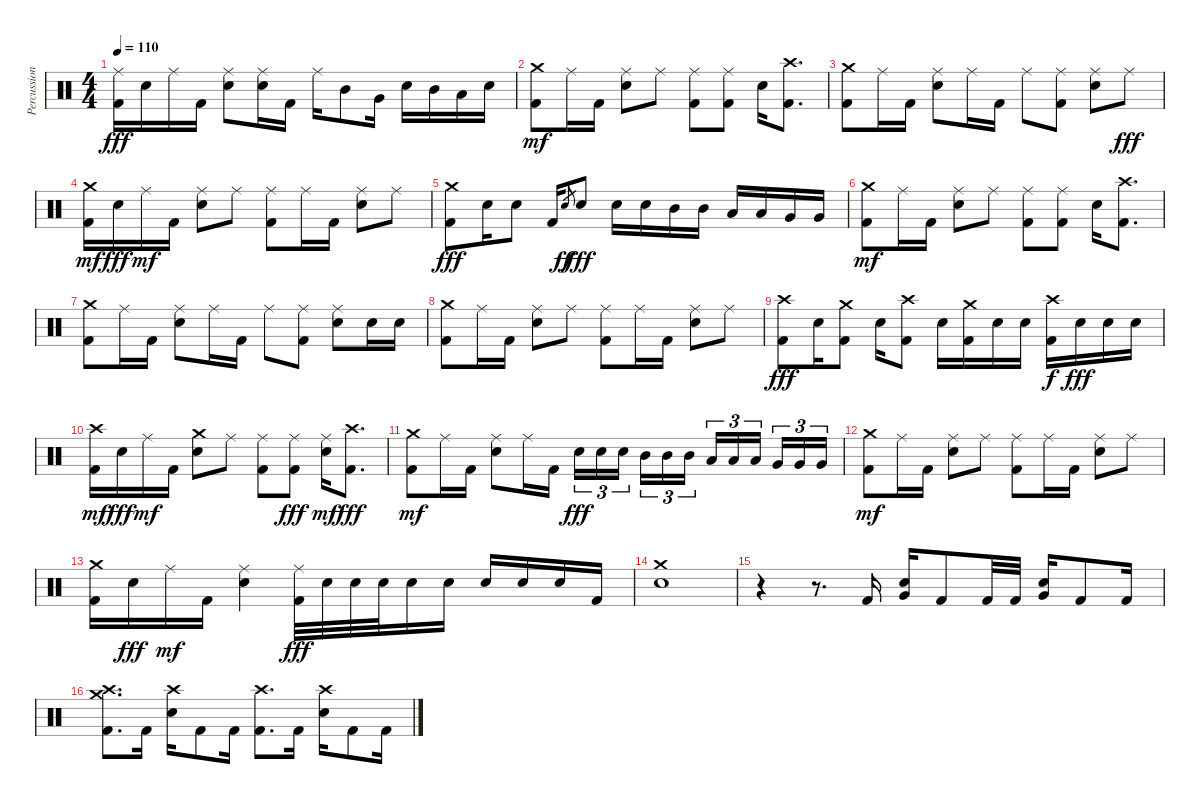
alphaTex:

\track ("Percussion" "Percussion") {instrument percussion}
\staff {score}
\articulation defaults
\ts (4 4)
\tempo 110
\clef neutral
\ks c
("Ride (middle)" "Kick (hit) 2").16{dy fff} "Electric Snare (hit)".16 "Ride (middle)".16 "Kick (hit) 2".16 ("Ride (middle)" "Electric Snare (hit)").8 ("Ride (middle)" "Electric Snare (hit)").16 "Kick (hit) 2".16 "Ride (middle)".16 "Mid Tom (hit)".8 "Very Low Tom (hit)".16 "Electric Snare (hit)".16 "Mid Tom (hit)".16 "Low Tom (hit)".16 "Electric Snare (hit)".16 |
("Crash medium (hit)" "Kick (hit) 2").8{dy mf} "Ride (middle)".16 "Kick (hit) 2".16 ("Ride (middle)" "Electric Snare (hit)").8 "Ride (middle)".8 ("Ride (middle)" "Kick (hit) 2").8 ("Ride (middle)" "Kick (hit) 2").8 "Electric Snare (hit)".16 ("Crash high (hit)" "Kick (hit) 2").8{d} |
("Crash medium (hit)" "Kick (hit) 2").8 "Ride (middle)".16 "Kick (hit) 2".16 ("Ride (middle)" "Electric Snare (hit)").8 "Ride (middle)".16 "Kick (hit) 2".16 "Ride (middle)".8 ("Ride (middle)" "Kick (hit) 2").8 ("Ride (middle)" "Electric Snare (hit)").8 "Ride (middle)".8{dy fff} |
("Crash medium (hit)" "Kick (hit) 2").16{dy mf} "Electric Snare (hit)".16{dy fff} "Ride (middle)".16{dy mf} "Kick (hit) 2".16 ("Ride (middle)" "Electric Snare (hit)").8 "Ride (middle)".8 ("Ride (middle)" "Kick (hit) 2").8 "Ride (middle)".16 "Kick (hit) 2".16 ("Ride (middle)" "Electric Snare (hit)").8 "Ride (middle)".8 |
("Crash medium (hit)" "Kick (hit) 2").8{dy fff} "Electric Snare (hit)".16 "Electric Snare (hit)".8 "Kick (hit) 2".16 "Electric Snare (hit)"{h}.8{gr dy ff} "Electric Snare (hit)".8{dy fff} "Electric Snare (hit)".16 "Electric Snare (hit)".16 "Mid Tom (hit)".16 "Mid Tom (hit)".16 "Low Tom (hit)".16 "Low Tom (hit)".16 "Very Low Tom (hit)".16 "Very Low Tom (hit)".16 |
("Crash medium (hit)" "Kick (hit) 2").8{dy mf} "Ride (middle)".16 "Kick (hit) 2".16 ("Ride (middle)" "Electric Snare (hit)").8 "Ride (middle)".8 ("Ride (middle)" "Kick (hit) 2").8 ("Ride (middle)" "Kick (hit) 2").8 "Electric Snare (hit)".16 ("Crash high (hit)" "Kick (hit) 2").8{d} |
("Crash medium (hit)" "Kick (hit) 2").8 "Ride (middle)".16 "Kick (hit) 2".16 ("Ride (middle)" "Electric Snare (hit)").8 "Ride (middle)".16 "Kick (hit) 2".16 "Ride (middle)".8 ("Ride (middle)" "Kick (hit) 2").8 ("Ride (middle)" "Electric Snare (hit)").8 "Electric Snare (hit)".16 "Electric Snare (hit)".16 |
("Crash medium (hit)" "Kick (hit) 2").8 "Ride (middle)".16 "Kick (hit) 2".16 ("Ride (middle)" "Electric Snare (hit)").8 "Ride (middle)".8 ("Ride (middle)" "Kick (hit) 2").8 "Ride (middle)".16 "Kick (hit) 2".16 ("Ride (middle)" "Electric Snare (hit)").8 "Ride (middle)".8 |
("Crash high (hit)" "Kick (hit) 2").8{dy fff} "Electric Snare (hit)".16 ("Crash medium (hit)" "Kick (hit) 2").8 "Electric Snare (hit)".16 ("Crash high (hit)" "Kick (hit) 2").8 "Electric Snare (hit)".16 ("Crash medium (hit)" "Kick (hit) 2").16 "Electric Snare (hit)".16 "Electric Snare (hit)".16 ("Crash high (hit)" "Kick (hit) 2").16{dy f} "Electric Snare (hit)".16{dy fff} "Electric Snare (hit)".16 "Electric Snare (hit)".16 |
("Crash high (hit)" "Kick (hit) 2").16{dy mf} "Electric Snare (hit)".16{dy fff} "Ride (middle)".16{dy mf} "Kick (hit) 2".16 ("Crash medium (hit)" "Electric Snare (hit)").8 "Ride (middle)".8 ("Ride (middle)" "Kick (hit) 2").8 ("Ride (middle)" "Kick (hit) 2").8{dy fff} ("Ride (middle)" "Electric Snare (hit)").16{dy mf} ("Crash high (hit)" "Kick (hit) 2").8{d dy fff} |
("Crash medium (hit)" "Kick (hit) 2").8{dy mf} "Ride (middle)".16 "Kick (hit) 2".16 ("Ride (middle)" "Electric Snare (hit)").8 "Ride (middle)".16 "Kick (hit) 2".16 "Electric Snare (hit)".16{tu (3 2) dy fff} "Electric Snare (hit)".16{tu (3 2)} "Electric Snare (hit)".16{tu (3 2) beam splitsecondary} "Mid Tom (hit)".16{tu (3 2)} "Mid Tom (hit)".16{tu (3 2)} "Mid Tom (hit)".16{tu (3 2)} "Low Tom (hit)".16{tu (3 2)} "Low Tom (hit)".16{tu (3 2)} "Low Tom (hit)".16{tu (3 2) beam splitsecondary} "Very Low Tom (hit)".16{tu (3 2)} "Very Low Tom (hit)".16{tu (3 2)} "Very Low Tom (hit)".16{tu (3 2)} |
("Crash medium (hit)" "Kick (hit) 2").8{dy mf} "Ride (middle)".16 "Kick (hit) 2".16 ("Ride (middle)" "Electric Snare (hit)").8 "Ride (middle)".8 ("Ride (middle)" "Kick (hit) 2").8 "Ride (middle)".16 "Kick (hit) 2".16 ("Ride (middle)" "Electric Snare (hit)").8 "Ride (middle)".8 |
("Crash medium (hit)" "Kick (hit) 2").16 "Electric Snare (hit)".16{dy fff} "Ride (middle)".16{dy mf} "Kick (hit) 2".16 ("Ride (middle)" "Electric Snare (hit)").4 ("Ride (middle)" "Kick (hit) 2").32{dy fff} "Electric Snare (hit)".32 "Electric Snare (hit)".32 "Electric Snare (hit)".32 "Electric Snare (hit)".16 "Electric Snare (hit)".16 "Electric Snare (hit)".16 "Electric Snare (hit)".16 "Electric Snare (hit)".16 "Kick (hit) 2".16 |
("Crash medium (hit)" "Electric Snare (hit)").1 |
r.4 r.8{d} "Kick (hit) 2".16 ("Electric Snare (hit)" "Very Low Tom (hit)").16 "Kick (hit) 2".8 "Kick (hit) 2".32 "Kick (hit) 2".32 ("Electric Snare (hit)" "Very Low Tom (hit)").16 "Kick (hit) 2".8 "Kick (hit) 2".16 |
("Crash medium (hit)" "Crash high (hit)" "Kick (hit) 2").8{d} "Kick (hit) 2".16 ("Crash high (hit)" "Electric Snare (hit)").16 "Kick (hit) 2".8 "Kick (hit) 2".16 ("Crash high (hit)" "Kick (hit) 2").8{d} "Kick (hit) 2".16 ("Crash high (hit)" "Electric Snare (hit)").16 "Kick (hit) 2".8 "Kick (hit) 2".16
